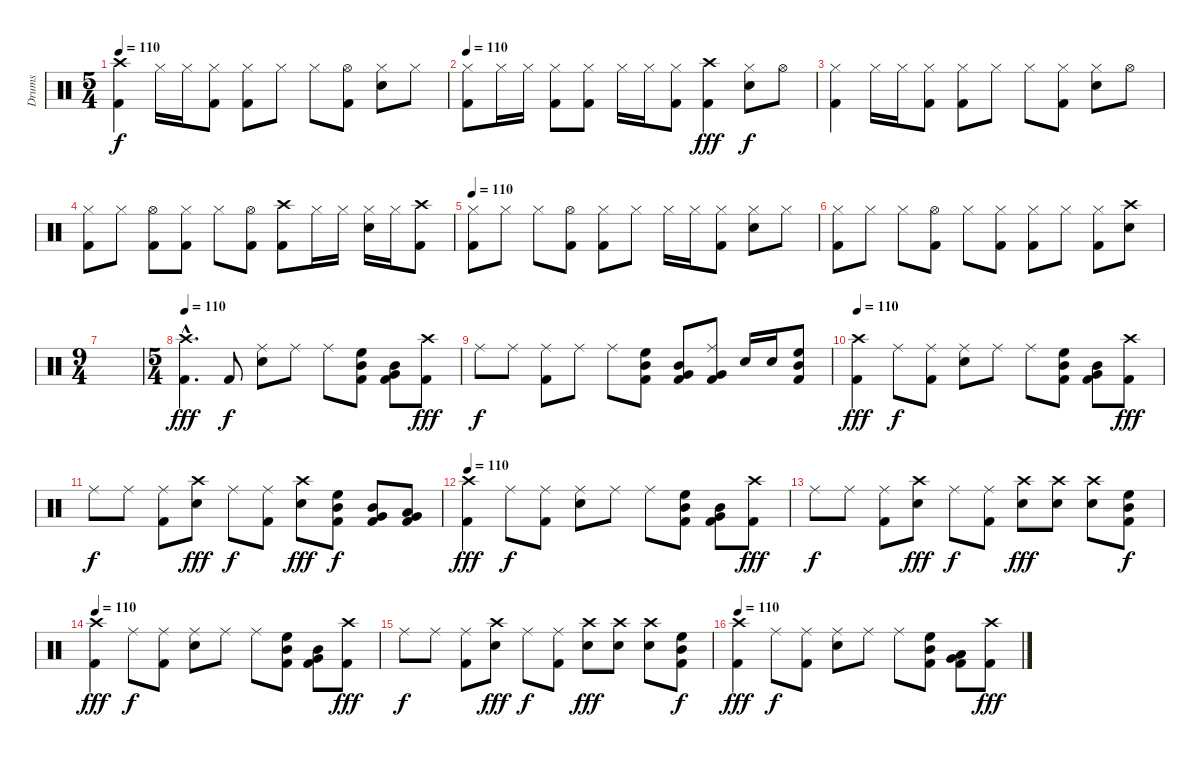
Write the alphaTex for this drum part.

\track ("Drums" "Drums") {instrument percussion}
\staff {score}
\articulation defaults
\ts (5 4)
\tempo 110
\clef neutral
\ks c
("Crash high (hit)" "Kick (hit) 2").4{dy f} "Hi-Hat (closed)".16 "Hi-Hat (closed)".16 ("Hi-Hat (closed)" "Kick (hit) 2").8 ("Hi-Hat (closed)" "Kick (hit) 2").8 "Hi-Hat (closed)".8 "Hi-Hat (closed)".8 ("Hi-Hat (open)" "Kick (hit) 2").8 ("Hi-Hat (closed)" "Snare (hit) 2").8 "Hi-Hat (closed)".8 |
\tempo 110
("Hi-Hat (closed)" "Kick (hit) 2").8 "Hi-Hat (closed)".16 "Hi-Hat (closed)".16 ("Hi-Hat (closed)" "Kick (hit) 2").8 ("Hi-Hat (closed)" "Kick (hit) 2").8 "Hi-Hat (closed)".16 "Hi-Hat (closed)".16 ("Hi-Hat (closed)" "Kick (hit) 2").8 ("Crash high (hit)" "Kick (hit) 2").4{dy fff} ("Hi-Hat (closed)" "Snare (hit) 2").8{dy f} "Hi-Hat (open)".8 |
("Hi-Hat (closed)" "Kick (hit) 2").4 "Hi-Hat (closed)".16 "Hi-Hat (closed)".16 ("Hi-Hat (closed)" "Kick (hit) 2").8 ("Hi-Hat (closed)" "Kick (hit) 2").8 "Hi-Hat (closed)".8 "Hi-Hat (closed)".8 ("Hi-Hat (closed)" "Kick (hit) 2").8 ("Hi-Hat (closed)" "Snare (hit) 2").8 "Hi-Hat (open)".8 |
("Hi-Hat (closed)" "Kick (hit) 2").8 "Hi-Hat (closed)".8 ("Hi-Hat (open)" "Kick (hit) 2").8 ("Hi-Hat (closed)" "Kick (hit) 2").8 "Hi-Hat (closed)".8 ("Hi-Hat (open)" "Kick (hit) 2").8 ("Crash high (hit)" "Kick (hit) 2").8 "Hi-Hat (closed)".16 "Hi-Hat (closed)".16 ("Hi-Hat (closed)" "Snare (hit) 2").16 "Hi-Hat (closed)".16 ("Crash high (hit)" "Kick (hit) 2").8 |
\tempo 110
("Hi-Hat (closed)" "Kick (hit) 2").8 "Hi-Hat (closed)".8 "Hi-Hat (closed)".8 ("Hi-Hat (open)" "Kick (hit) 2").8 ("Hi-Hat (closed)" "Kick (hit) 2").8 "Hi-Hat (closed)".8 "Hi-Hat (closed)".16 "Hi-Hat (closed)".16 ("Hi-Hat (closed)" "Kick (hit) 2").8 ("Hi-Hat (closed)" "Snare (hit) 2").8 "Hi-Hat (closed)".8 |
("Hi-Hat (closed)" "Kick (hit) 2").8 "Hi-Hat (closed)".8 "Hi-Hat (closed)".8 ("Hi-Hat (open)" "Kick (hit) 2").8 "Hi-Hat (closed)".8 ("Hi-Hat (closed)" "Kick (hit) 2").8 ("Hi-Hat (closed)" "Kick (hit) 2").8 "Hi-Hat (closed)".8 ("Hi-Hat (closed)" "Kick (hit) 2").8 ("Crash high (hit)" "Snare (hit) 2").8 |
\ts (9 4)
|
\ts (5 4)
\tempo 110
("Crash high (hit)"{hac} "Kick (hit) 2"{hac}).4{d dy fff} "Kick (hit) 2".8{dy f} ("Ride (middle)" "Snare (hit) 2").8 "Ride (middle)".8 "Ride (middle)".8 ("High Floor Tom (hit)" "Mid Tom (hit)" "Kick (hit) 2").8 ("Mid Tom (hit)" "Very Low Tom (hit)" "Kick (hit) 2").8 ("Crash high (hit)" "Kick (hit) 2").8{dy fff} |
"Ride (middle)".8{dy f} "Ride (middle)".8 ("Ride (middle)" "Kick (hit) 2").8 "Ride (middle)".8 "Ride (middle)".8 ("High Floor Tom (hit)" "Mid Tom (hit)" "Kick (hit) 2").8 ("Very Low Tom (hit)" "Mid Tom (hit)" "Kick (hit) 2").8 ("Very Low Tom (hit)" "Ride (middle)" "Kick (hit) 2").8 "Snare (hit) 2".16 "Snare (hit) 2".16 ("Mid Tom (hit)" "High Floor Tom (hit)" "Kick (hit) 2").8 |
\tempo 110
("Crash high (hit)" "Kick (hit) 2").4{dy fff} "Ride (middle)".8{dy f} ("Ride (middle)" "Kick (hit) 2").8 ("Ride (middle)" "Snare (hit) 2").8 "Ride (middle)".8 "Ride (middle)".8 ("High Floor Tom (hit)" "Mid Tom (hit)" "Kick (hit) 2").8 ("Mid Tom (hit)" "Very Low Tom (hit)" "Kick (hit) 2").8 ("Crash high (hit)" "Kick (hit) 2").8{dy fff} |
"Ride (middle)".8{dy f} "Ride (middle)".8 ("Ride (middle)" "Kick (hit) 2").8 ("Crash high (hit)" "Snare (hit) 2").8{dy fff} "Ride (middle)".8{dy f} ("Ride (middle)" "Kick (hit) 2").8 ("Crash high (hit)" "Snare (hit) 2").8{dy fff} ("High Floor Tom (hit)" "Mid Tom (hit)" "Kick (hit) 2").8{dy f} ("Mid Tom (hit)" "Very Low Tom (hit)" "Kick (hit) 2").8 ("Very Low Tom (hit)" "Low Floor Tom (hit)" "Kick (hit) 2").8 |
\tempo 110
("Crash high (hit)" "Kick (hit) 2").4{dy fff} "Ride (middle)".8{dy f} ("Kick (hit) 2" "Ride (middle)").8 ("Ride (middle)" "Snare (hit) 2").8 "Ride (middle)".8 "Ride (middle)".8 ("High Floor Tom (hit)" "Mid Tom (hit)" "Kick (hit) 2").8 ("Very Low Tom (hit)" "Kick (hit) 2" "Mid Tom (hit)").8 ("Crash high (hit)" "Kick (hit) 2").8{dy fff} |
"Ride (middle)".8{dy f} "Ride (middle)".8 ("Ride (middle)" "Kick (hit) 2").8 ("Crash high (hit)" "Snare (hit) 2").8{dy fff} "Ride (middle)".8{dy f} ("Ride (middle)" "Kick (hit) 2").8 ("Crash high (hit)" "Snare (hit) 2").8{dy fff} ("Crash high (hit)" "Snare (hit) 2").8 ("Crash high (hit)" "Snare (hit) 2").8 ("Mid Tom (hit)" "High Floor Tom (hit)" "Kick (hit) 2").8{dy f} |
\tempo 110
("Crash high (hit)" "Kick (hit) 2").4{dy fff} "Ride (middle)".8{dy f} ("Ride (middle)" "Kick (hit) 2").8 ("Ride (middle)" "Snare (hit) 2").8 "Ride (middle)".8 "Ride (middle)".8 ("High Floor Tom (hit)" "Mid Tom (hit)" "Kick (hit) 2").8 ("Mid Tom (hit)" "Very Low Tom (hit)" "Kick (hit) 2").8 ("Crash high (hit)" "Kick (hit) 2").8{dy fff} |
"Ride (middle)".8{dy f} "Ride (middle)".8 ("Ride (middle)" "Kick (hit) 2").8 ("Crash high (hit)" "Snare (hit) 2").8{dy fff} "Ride (middle)".8{dy f} ("Ride (middle)" "Kick (hit) 2").8 ("Crash high (hit)" "Snare (hit) 2").8{dy fff} ("Crash high (hit)" "Snare (hit) 2").8 ("Crash high (hit)" "Snare (hit) 2").8 ("High Floor Tom (hit)" "Mid Tom (hit)" "Kick (hit) 2").8{dy f} |
\tempo 110
("Crash high (hit)" "Kick (hit) 2").4{dy fff} "Ride (middle)".8{dy f} ("Ride (middle)" "Kick (hit) 2").8 ("Ride (middle)" "Snare (hit) 2").8 "Ride (middle)".8 "Ride (middle)".8 ("High Floor Tom (hit)" "Mid Tom (hit)" "Kick (hit) 2").8 ("Kick (hit) 2" "Very Low Tom (hit)" "Low Floor Tom (hit)").8 ("Crash high (hit)" "Kick (hit) 2").8{dy fff}
